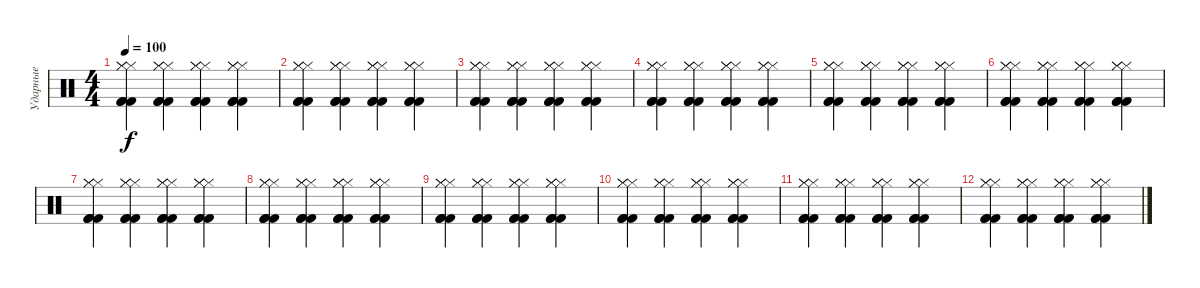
\track ("Ударные" "Ударные") {instrument percussion}
\staff {score}
\articulation defaults
\ts (4 4)
\tempo 100
\clef neutral
\ks c
("Kick (hit) 2" "Kick (hit) 2" "Kick (hit) 2" "Hi-Hat (closed)" "Hi-Hat (closed)" "Hi-Hat (closed)").4{dy f} ("Kick (hit) 2" "Kick (hit) 2" "Kick (hit) 2" "Hi-Hat (closed)" "Hi-Hat (closed)" "Hi-Hat (closed)").4 ("Kick (hit) 2" "Kick (hit) 2" "Kick (hit) 2" "Hi-Hat (closed)" "Hi-Hat (closed)" "Hi-Hat (closed)").4 ("Kick (hit) 2" "Kick (hit) 2" "Kick (hit) 2" "Hi-Hat (closed)" "Hi-Hat (closed)" "Hi-Hat (closed)").4 |
("Kick (hit) 2" "Kick (hit) 2" "Kick (hit) 2" "Hi-Hat (closed)" "Hi-Hat (closed)" "Hi-Hat (closed)").4 ("Kick (hit) 2" "Kick (hit) 2" "Kick (hit) 2" "Hi-Hat (closed)" "Hi-Hat (closed)" "Hi-Hat (closed)").4 ("Kick (hit) 2" "Kick (hit) 2" "Kick (hit) 2" "Hi-Hat (closed)" "Hi-Hat (closed)" "Hi-Hat (closed)").4 ("Kick (hit) 2" "Kick (hit) 2" "Kick (hit) 2" "Hi-Hat (closed)" "Hi-Hat (closed)" "Hi-Hat (closed)").4 |
("Kick (hit) 2" "Kick (hit) 2" "Kick (hit) 2" "Hi-Hat (closed)" "Hi-Hat (closed)" "Hi-Hat (closed)").4 ("Kick (hit) 2" "Kick (hit) 2" "Kick (hit) 2" "Hi-Hat (closed)" "Hi-Hat (closed)" "Hi-Hat (closed)").4 ("Kick (hit) 2" "Kick (hit) 2" "Kick (hit) 2" "Hi-Hat (closed)" "Hi-Hat (closed)" "Hi-Hat (closed)").4 ("Kick (hit) 2" "Kick (hit) 2" "Kick (hit) 2" "Hi-Hat (closed)" "Hi-Hat (closed)" "Hi-Hat (closed)").4 |
("Kick (hit) 2" "Kick (hit) 2" "Kick (hit) 2" "Hi-Hat (closed)" "Hi-Hat (closed)" "Hi-Hat (closed)").4 ("Kick (hit) 2" "Kick (hit) 2" "Kick (hit) 2" "Hi-Hat (closed)" "Hi-Hat (closed)" "Hi-Hat (closed)").4 ("Kick (hit) 2" "Kick (hit) 2" "Kick (hit) 2" "Hi-Hat (closed)" "Hi-Hat (closed)" "Hi-Hat (closed)").4 ("Kick (hit) 2" "Kick (hit) 2" "Kick (hit) 2" "Hi-Hat (closed)" "Hi-Hat (closed)" "Hi-Hat (closed)").4 |
("Kick (hit) 2" "Kick (hit) 2" "Kick (hit) 2" "Hi-Hat (closed)" "Hi-Hat (closed)" "Hi-Hat (closed)").4 ("Kick (hit) 2" "Kick (hit) 2" "Kick (hit) 2" "Hi-Hat (closed)" "Hi-Hat (closed)" "Hi-Hat (closed)").4 ("Kick (hit) 2" "Kick (hit) 2" "Kick (hit) 2" "Hi-Hat (closed)" "Hi-Hat (closed)" "Hi-Hat (closed)").4 ("Kick (hit) 2" "Kick (hit) 2" "Kick (hit) 2" "Hi-Hat (closed)" "Hi-Hat (closed)" "Hi-Hat (closed)").4 |
("Kick (hit) 2" "Kick (hit) 2" "Kick (hit) 2" "Hi-Hat (closed)" "Hi-Hat (closed)" "Hi-Hat (closed)").4 ("Kick (hit) 2" "Kick (hit) 2" "Kick (hit) 2" "Hi-Hat (closed)" "Hi-Hat (closed)" "Hi-Hat (closed)").4 ("Kick (hit) 2" "Kick (hit) 2" "Kick (hit) 2" "Hi-Hat (closed)" "Hi-Hat (closed)" "Hi-Hat (closed)").4 ("Kick (hit) 2" "Kick (hit) 2" "Kick (hit) 2" "Hi-Hat (closed)" "Hi-Hat (closed)" "Hi-Hat (closed)").4 |
("Kick (hit) 2" "Kick (hit) 2" "Kick (hit) 2" "Hi-Hat (closed)" "Hi-Hat (closed)" "Hi-Hat (closed)").4 ("Kick (hit) 2" "Kick (hit) 2" "Kick (hit) 2" "Hi-Hat (closed)" "Hi-Hat (closed)" "Hi-Hat (closed)").4 ("Kick (hit) 2" "Kick (hit) 2" "Kick (hit) 2" "Hi-Hat (closed)" "Hi-Hat (closed)" "Hi-Hat (closed)").4 ("Kick (hit) 2" "Kick (hit) 2" "Kick (hit) 2" "Hi-Hat (closed)" "Hi-Hat (closed)" "Hi-Hat (closed)").4 |
("Kick (hit) 2" "Kick (hit) 2" "Kick (hit) 2" "Hi-Hat (closed)" "Hi-Hat (closed)" "Hi-Hat (closed)").4 ("Kick (hit) 2" "Kick (hit) 2" "Kick (hit) 2" "Hi-Hat (closed)" "Hi-Hat (closed)" "Hi-Hat (closed)").4 ("Kick (hit) 2" "Kick (hit) 2" "Kick (hit) 2" "Hi-Hat (closed)" "Hi-Hat (closed)" "Hi-Hat (closed)").4 ("Kick (hit) 2" "Kick (hit) 2" "Kick (hit) 2" "Hi-Hat (closed)" "Hi-Hat (closed)" "Hi-Hat (closed)").4 |
("Kick (hit) 2" "Kick (hit) 2" "Kick (hit) 2" "Hi-Hat (closed)" "Hi-Hat (closed)" "Hi-Hat (closed)").4 ("Kick (hit) 2" "Kick (hit) 2" "Kick (hit) 2" "Hi-Hat (closed)" "Hi-Hat (closed)" "Hi-Hat (closed)").4 ("Kick (hit) 2" "Kick (hit) 2" "Kick (hit) 2" "Hi-Hat (closed)" "Hi-Hat (closed)" "Hi-Hat (closed)").4 ("Kick (hit) 2" "Kick (hit) 2" "Kick (hit) 2" "Hi-Hat (closed)" "Hi-Hat (closed)" "Hi-Hat (closed)").4 |
("Kick (hit) 2" "Kick (hit) 2" "Kick (hit) 2" "Hi-Hat (closed)" "Hi-Hat (closed)" "Hi-Hat (closed)").4 ("Kick (hit) 2" "Kick (hit) 2" "Kick (hit) 2" "Hi-Hat (closed)" "Hi-Hat (closed)" "Hi-Hat (closed)").4 ("Kick (hit) 2" "Kick (hit) 2" "Kick (hit) 2" "Hi-Hat (closed)" "Hi-Hat (closed)" "Hi-Hat (closed)").4 ("Kick (hit) 2" "Kick (hit) 2" "Kick (hit) 2" "Hi-Hat (closed)" "Hi-Hat (closed)" "Hi-Hat (closed)").4 |
("Kick (hit) 2" "Kick (hit) 2" "Kick (hit) 2" "Hi-Hat (closed)" "Hi-Hat (closed)" "Hi-Hat (closed)").4 ("Kick (hit) 2" "Kick (hit) 2" "Kick (hit) 2" "Hi-Hat (closed)" "Hi-Hat (closed)" "Hi-Hat (closed)").4 ("Kick (hit) 2" "Kick (hit) 2" "Kick (hit) 2" "Hi-Hat (closed)" "Hi-Hat (closed)" "Hi-Hat (closed)").4 ("Kick (hit) 2" "Kick (hit) 2" "Kick (hit) 2" "Hi-Hat (closed)" "Hi-Hat (closed)" "Hi-Hat (closed)").4 |
("Kick (hit) 2" "Kick (hit) 2" "Kick (hit) 2" "Hi-Hat (closed)" "Hi-Hat (closed)" "Hi-Hat (closed)").4 ("Kick (hit) 2" "Kick (hit) 2" "Kick (hit) 2" "Hi-Hat (closed)" "Hi-Hat (closed)" "Hi-Hat (closed)").4 ("Kick (hit) 2" "Kick (hit) 2" "Kick (hit) 2" "Hi-Hat (closed)" "Hi-Hat (closed)" "Hi-Hat (closed)").4 ("Kick (hit) 2" "Kick (hit) 2" "Kick (hit) 2" "Hi-Hat (closed)" "Hi-Hat (closed)" "Hi-Hat (closed)").4
